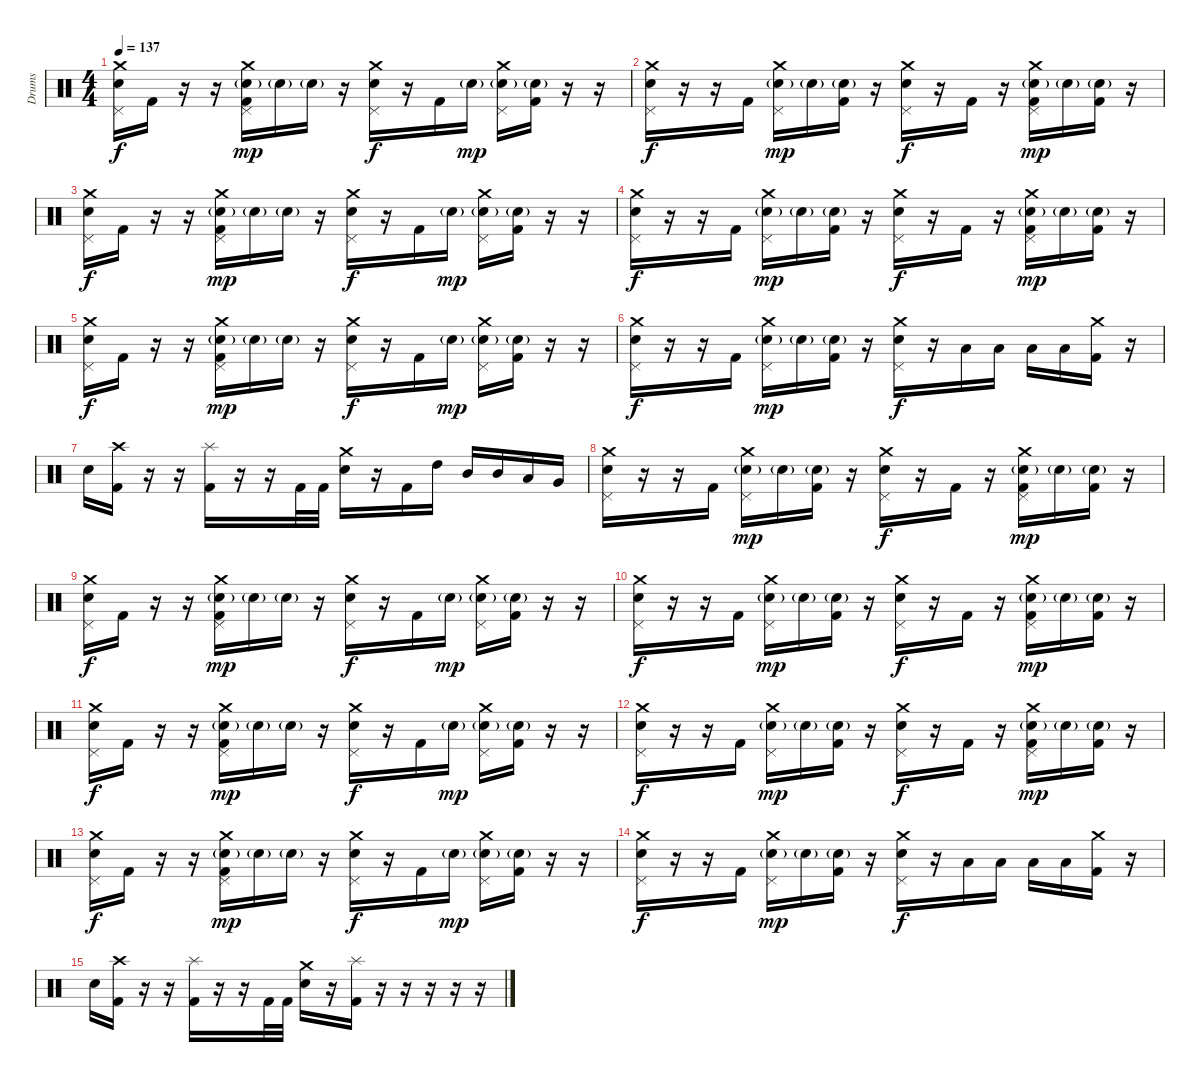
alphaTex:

\track ("Drums" "Drums") {instrument percussion}
\staff {score}
\articulation defaults
\ts (4 4)
\tempo 137
\clef neutral
\ks c
("Crash medium (hit)" "Pedal Hi-Hat (hit)" "Electric Snare (hit)").16{dy f} "Kick (hit) 2".16 r.16 r.16 ("Crash medium (hit)" "Pedal Hi-Hat (hit)" "Electric Snare (hit)"{g} "Kick (hit) 2").16{dy mp} "Electric Snare (hit)"{g}.16 "Electric Snare (hit)"{g}.16 r.16 ("Crash medium (hit)" "Pedal Hi-Hat (hit)" "Electric Snare (hit)").16{dy f} r.16 "Kick (hit) 2".16 "Electric Snare (hit)"{g}.16{dy mp} ("Crash medium (hit)" "Pedal Hi-Hat (hit)" "Electric Snare (hit)"{g}).16 ("Electric Snare (hit)"{g} "Kick (hit) 2").16 r.16 r.16 |
("Crash medium (hit)" "Pedal Hi-Hat (hit)" "Electric Snare (hit)").16{dy f} r.16 r.16 "Kick (hit) 2".16 ("Crash medium (hit)" "Pedal Hi-Hat (hit)" "Electric Snare (hit)"{g}).16{dy mp} "Electric Snare (hit)"{g}.16 ("Electric Snare (hit)"{g} "Kick (hit) 2").16 r.16 ("Crash medium (hit)" "Pedal Hi-Hat (hit)" "Electric Snare (hit)").16{dy f} r.16 "Kick (hit) 2".16 r.16 ("Crash medium (hit)" "Pedal Hi-Hat (hit)" "Electric Snare (hit)"{g} "Kick (hit) 2").16{dy mp} "Electric Snare (hit)"{g}.16 ("Electric Snare (hit)"{g} "Kick (hit) 2").16 r.16 |
("Crash medium (hit)" "Pedal Hi-Hat (hit)" "Electric Snare (hit)").16{dy f} "Kick (hit) 2".16 r.16 r.16 ("Crash medium (hit)" "Pedal Hi-Hat (hit)" "Electric Snare (hit)"{g} "Kick (hit) 2").16{dy mp} "Electric Snare (hit)"{g}.16 "Electric Snare (hit)"{g}.16 r.16 ("Crash medium (hit)" "Pedal Hi-Hat (hit)" "Electric Snare (hit)").16{dy f} r.16 "Kick (hit) 2".16 "Electric Snare (hit)"{g}.16{dy mp} ("Crash medium (hit)" "Pedal Hi-Hat (hit)" "Electric Snare (hit)"{g}).16 ("Electric Snare (hit)"{g} "Kick (hit) 2").16 r.16 r.16 |
("Crash medium (hit)" "Pedal Hi-Hat (hit)" "Electric Snare (hit)").16{dy f} r.16 r.16 "Kick (hit) 2".16 ("Crash medium (hit)" "Pedal Hi-Hat (hit)" "Electric Snare (hit)"{g}).16{dy mp} "Electric Snare (hit)"{g}.16 ("Electric Snare (hit)"{g} "Kick (hit) 2").16 r.16 ("Crash medium (hit)" "Pedal Hi-Hat (hit)" "Electric Snare (hit)").16{dy f} r.16 "Kick (hit) 2".16 r.16 ("Crash medium (hit)" "Pedal Hi-Hat (hit)" "Electric Snare (hit)"{g} "Kick (hit) 2").16{dy mp} "Electric Snare (hit)"{g}.16 ("Electric Snare (hit)"{g} "Kick (hit) 2").16 r.16 |
("Crash medium (hit)" "Pedal Hi-Hat (hit)" "Electric Snare (hit)").16{dy f} "Kick (hit) 2".16 r.16 r.16 ("Crash medium (hit)" "Pedal Hi-Hat (hit)" "Electric Snare (hit)"{g} "Kick (hit) 2").16{dy mp} "Electric Snare (hit)"{g}.16 "Electric Snare (hit)"{g}.16 r.16 ("Crash medium (hit)" "Pedal Hi-Hat (hit)" "Electric Snare (hit)").16{dy f} r.16 "Kick (hit) 2".16 "Electric Snare (hit)"{g}.16{dy mp} ("Crash medium (hit)" "Pedal Hi-Hat (hit)" "Electric Snare (hit)"{g}).16 ("Electric Snare (hit)"{g} "Kick (hit) 2").16 r.16 r.16 |
("Crash medium (hit)" "Pedal Hi-Hat (hit)" "Electric Snare (hit)").16{dy f} r.16 r.16 "Kick (hit) 2".16 ("Crash medium (hit)" "Pedal Hi-Hat (hit)" "Electric Snare (hit)"{g}).16{dy mp} "Electric Snare (hit)"{g}.16 ("Electric Snare (hit)"{g} "Kick (hit) 2").16 r.16 ("Crash medium (hit)" "Pedal Hi-Hat (hit)" "Electric Snare (hit)").16{dy f} r.16 "Low Tom (hit)".16 "Low Tom (hit)".16 "Low Tom (hit)".16 "Low Tom (hit)".16 ("Crash medium (hit)" "Kick (hit) 2").16 r.16 |
"Electric Snare (hit)".16 ("Crash high (hit)" "Kick (hit) 2").16 r.16 r.16 ("Splash (hit)" "Kick (hit) 2").16 r.16 r.16 "Kick (hit) 2".32 "Kick (hit) 2".32 ("Crash medium (hit)" "Electric Snare (hit)").16 r.16 "Kick (hit) 2".16 "High Tom (hit)".16 "Mid Tom (hit)".16 "Mid Tom (hit)".16 "Low Tom (hit)".16 "Very Low Tom (hit)".16 |
("Crash medium (hit)" "Pedal Hi-Hat (hit)" "Electric Snare (hit)").16 r.16 r.16 "Kick (hit) 2".16 ("Crash medium (hit)" "Pedal Hi-Hat (hit)" "Electric Snare (hit)"{g}).16{dy mp} "Electric Snare (hit)"{g}.16 ("Electric Snare (hit)"{g} "Kick (hit) 2").16 r.16 ("Crash medium (hit)" "Pedal Hi-Hat (hit)" "Electric Snare (hit)").16{dy f} r.16 "Kick (hit) 2".16 r.16 ("Crash medium (hit)" "Pedal Hi-Hat (hit)" "Electric Snare (hit)"{g} "Kick (hit) 2").16{dy mp} "Electric Snare (hit)"{g}.16 ("Electric Snare (hit)"{g} "Kick (hit) 2").16 r.16 |
("Crash medium (hit)" "Pedal Hi-Hat (hit)" "Electric Snare (hit)").16{dy f} "Kick (hit) 2".16 r.16 r.16 ("Crash medium (hit)" "Pedal Hi-Hat (hit)" "Electric Snare (hit)"{g} "Kick (hit) 2").16{dy mp} "Electric Snare (hit)"{g}.16 "Electric Snare (hit)"{g}.16 r.16 ("Crash medium (hit)" "Pedal Hi-Hat (hit)" "Electric Snare (hit)").16{dy f} r.16 "Kick (hit) 2".16 "Electric Snare (hit)"{g}.16{dy mp} ("Crash medium (hit)" "Pedal Hi-Hat (hit)" "Electric Snare (hit)"{g}).16 ("Electric Snare (hit)"{g} "Kick (hit) 2").16 r.16 r.16 |
("Crash medium (hit)" "Pedal Hi-Hat (hit)" "Electric Snare (hit)").16{dy f} r.16 r.16 "Kick (hit) 2".16 ("Crash medium (hit)" "Pedal Hi-Hat (hit)" "Electric Snare (hit)"{g}).16{dy mp} "Electric Snare (hit)"{g}.16 ("Electric Snare (hit)"{g} "Kick (hit) 2").16 r.16 ("Crash medium (hit)" "Pedal Hi-Hat (hit)" "Electric Snare (hit)").16{dy f} r.16 "Kick (hit) 2".16 r.16 ("Crash medium (hit)" "Pedal Hi-Hat (hit)" "Electric Snare (hit)"{g} "Kick (hit) 2").16{dy mp} "Electric Snare (hit)"{g}.16 ("Electric Snare (hit)"{g} "Kick (hit) 2").16 r.16 |
("Crash medium (hit)" "Pedal Hi-Hat (hit)" "Electric Snare (hit)").16{dy f} "Kick (hit) 2".16 r.16 r.16 ("Crash medium (hit)" "Pedal Hi-Hat (hit)" "Electric Snare (hit)"{g} "Kick (hit) 2").16{dy mp} "Electric Snare (hit)"{g}.16 "Electric Snare (hit)"{g}.16 r.16 ("Crash medium (hit)" "Pedal Hi-Hat (hit)" "Electric Snare (hit)").16{dy f} r.16 "Kick (hit) 2".16 "Electric Snare (hit)"{g}.16{dy mp} ("Crash medium (hit)" "Pedal Hi-Hat (hit)" "Electric Snare (hit)"{g}).16 ("Electric Snare (hit)"{g} "Kick (hit) 2").16 r.16 r.16 |
("Crash medium (hit)" "Pedal Hi-Hat (hit)" "Electric Snare (hit)").16{dy f} r.16 r.16 "Kick (hit) 2".16 ("Crash medium (hit)" "Pedal Hi-Hat (hit)" "Electric Snare (hit)"{g}).16{dy mp} "Electric Snare (hit)"{g}.16 ("Electric Snare (hit)"{g} "Kick (hit) 2").16 r.16 ("Crash medium (hit)" "Pedal Hi-Hat (hit)" "Electric Snare (hit)").16{dy f} r.16 "Kick (hit) 2".16 r.16 ("Crash medium (hit)" "Pedal Hi-Hat (hit)" "Electric Snare (hit)"{g} "Kick (hit) 2").16{dy mp} "Electric Snare (hit)"{g}.16 ("Electric Snare (hit)"{g} "Kick (hit) 2").16 r.16 |
("Crash medium (hit)" "Pedal Hi-Hat (hit)" "Electric Snare (hit)").16{dy f} "Kick (hit) 2".16 r.16 r.16 ("Crash medium (hit)" "Pedal Hi-Hat (hit)" "Electric Snare (hit)"{g} "Kick (hit) 2").16{dy mp} "Electric Snare (hit)"{g}.16 "Electric Snare (hit)"{g}.16 r.16 ("Crash medium (hit)" "Pedal Hi-Hat (hit)" "Electric Snare (hit)").16{dy f} r.16 "Kick (hit) 2".16 "Electric Snare (hit)"{g}.16{dy mp} ("Crash medium (hit)" "Pedal Hi-Hat (hit)" "Electric Snare (hit)"{g}).16 ("Electric Snare (hit)"{g} "Kick (hit) 2").16 r.16 r.16 |
("Crash medium (hit)" "Pedal Hi-Hat (hit)" "Electric Snare (hit)").16{dy f} r.16 r.16 "Kick (hit) 2".16 ("Crash medium (hit)" "Pedal Hi-Hat (hit)" "Electric Snare (hit)"{g}).16{dy mp} "Electric Snare (hit)"{g}.16 ("Electric Snare (hit)"{g} "Kick (hit) 2").16 r.16 ("Crash medium (hit)" "Pedal Hi-Hat (hit)" "Electric Snare (hit)").16{dy f} r.16 "Low Tom (hit)".16 "Low Tom (hit)".16 "Low Tom (hit)".16 "Low Tom (hit)".16 ("Crash medium (hit)" "Kick (hit) 2").16 r.16 |
"Electric Snare (hit)".16 ("Crash high (hit)" "Kick (hit) 2").16 r.16 r.16 ("Splash (hit)" "Kick (hit) 2").16 r.16 r.16 "Kick (hit) 2".32 "Kick (hit) 2".32 ("Crash medium (hit)" "Electric Snare (hit)").16 r.16 ("Splash (hit)" "Kick (hit) 2").16 r.16 r.16 r.16 r.16 r.16
